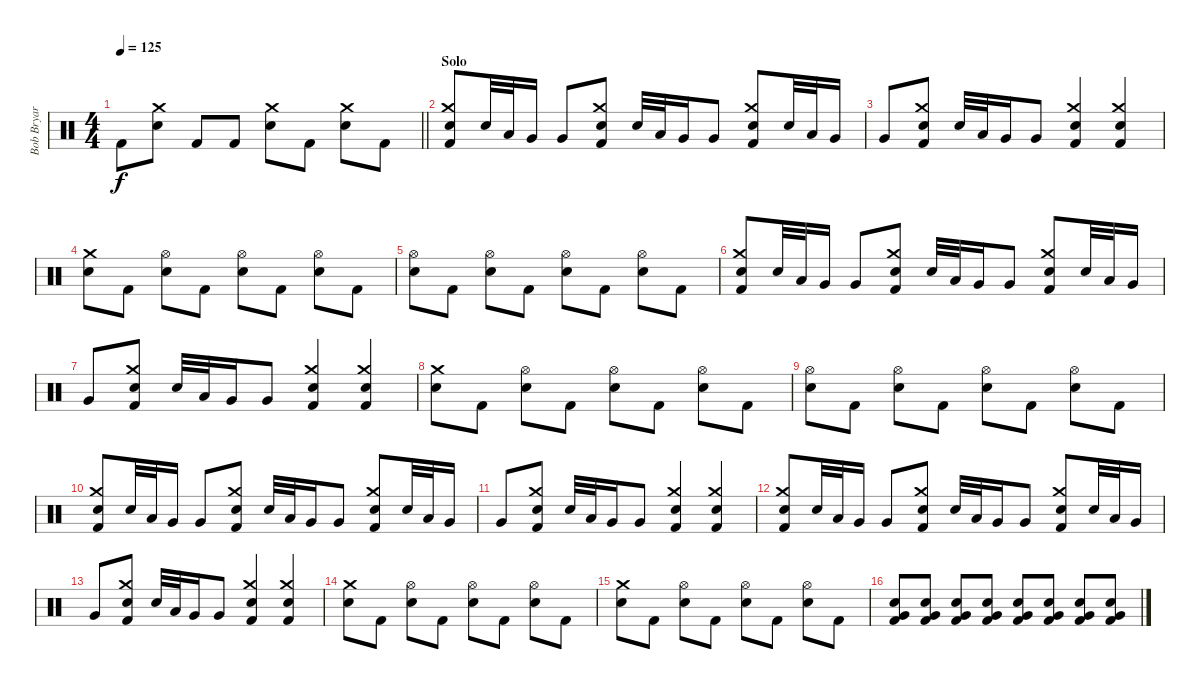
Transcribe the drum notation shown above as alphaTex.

\track ("Bob Bryar" "Bob Bryar") {instrument percussion}
\staff {score}
\articulation defaults
\ts (4 4)
\tempo 125
\clef neutral
\barLineRight lightlight
\ks c "Kick (hit) 2".8{dy f}
("Crash medium (hit)" "Electric Snare (hit)").8 "Kick (hit) 2".8 "Kick (hit) 2".8 ("Crash medium (hit)" "Electric Snare (hit)").8 "Kick (hit) 2".8 ("Crash medium (hit)" "Electric Snare (hit)").8 "Kick (hit) 2".8 |
\section ("" "Solo")
("Crash medium (hit)" "Electric Snare (hit)" "Kick (hit) 2").8 "Electric Snare (hit)".32 "Low Tom (hit)".32 "Very Low Tom (hit)".16 "Very Low Tom (hit)".8 ("Crash medium (hit)" "Electric Snare (hit)" "Kick (hit) 2").8 "Electric Snare (hit)".32 "Low Tom (hit)".32 "Very Low Tom (hit)".16 "Very Low Tom (hit)".8 ("Crash medium (hit)" "Electric Snare (hit)" "Kick (hit) 2").8 "Electric Snare (hit)".32 "Low Tom (hit)".32 "Very Low Tom (hit)".16 |
"Very Low Tom (hit)".8 ("Crash medium (hit)" "Electric Snare (hit)" "Kick (hit) 2").8 "Electric Snare (hit)".32 "Low Tom (hit)".32 "Very Low Tom (hit)".16 "Very Low Tom (hit)".8 ("Crash medium (hit)" "Electric Snare (hit)" "Kick (hit) 2").4 ("Crash medium (hit)" "Electric Snare (hit)" "Kick (hit) 2").4 |
("Crash medium (hit)" "Electric Snare (hit)").8 "Kick (hit) 2".8 ("Hi-Hat (open)" "Electric Snare (hit)").8 "Kick (hit) 2".8 ("Hi-Hat (open)" "Electric Snare (hit)").8 "Kick (hit) 2".8 ("Hi-Hat (open)" "Electric Snare (hit)").8 "Kick (hit) 2".8 |
("Hi-Hat (open)" "Electric Snare (hit)").8 "Kick (hit) 2".8 ("Hi-Hat (open)" "Electric Snare (hit)").8 "Kick (hit) 2".8 ("Hi-Hat (open)" "Electric Snare (hit)").8 "Kick (hit) 2".8 ("Hi-Hat (open)" "Electric Snare (hit)").8 "Kick (hit) 2".8 |
("Crash medium (hit)" "Electric Snare (hit)" "Kick (hit) 2").8 "Electric Snare (hit)".32 "Low Tom (hit)".32 "Very Low Tom (hit)".16 "Very Low Tom (hit)".8 ("Crash medium (hit)" "Electric Snare (hit)" "Kick (hit) 2").8 "Electric Snare (hit)".32 "Low Tom (hit)".32 "Very Low Tom (hit)".16 "Very Low Tom (hit)".8 ("Crash medium (hit)" "Electric Snare (hit)" "Kick (hit) 2").8 "Electric Snare (hit)".32 "Low Tom (hit)".32 "Very Low Tom (hit)".16 |
"Very Low Tom (hit)".8 ("Crash medium (hit)" "Electric Snare (hit)" "Kick (hit) 2").8 "Electric Snare (hit)".32 "Low Tom (hit)".32 "Very Low Tom (hit)".16 "Very Low Tom (hit)".8 ("Crash medium (hit)" "Electric Snare (hit)" "Kick (hit) 2").4 ("Crash medium (hit)" "Electric Snare (hit)" "Kick (hit) 2").4 |
("Crash medium (hit)" "Electric Snare (hit)").8 "Kick (hit) 2".8 ("Hi-Hat (open)" "Electric Snare (hit)").8 "Kick (hit) 2".8 ("Hi-Hat (open)" "Electric Snare (hit)").8 "Kick (hit) 2".8 ("Hi-Hat (open)" "Electric Snare (hit)").8 "Kick (hit) 2".8 |
("Hi-Hat (open)" "Electric Snare (hit)").8 "Kick (hit) 2".8 ("Hi-Hat (open)" "Electric Snare (hit)").8 "Kick (hit) 2".8 ("Hi-Hat (open)" "Electric Snare (hit)").8 "Kick (hit) 2".8 ("Hi-Hat (open)" "Electric Snare (hit)").8 "Kick (hit) 2".8 |
("Crash medium (hit)" "Electric Snare (hit)" "Kick (hit) 2").8 "Electric Snare (hit)".32 "Low Tom (hit)".32 "Very Low Tom (hit)".16 "Very Low Tom (hit)".8 ("Crash medium (hit)" "Electric Snare (hit)" "Kick (hit) 2").8 "Electric Snare (hit)".32 "Low Tom (hit)".32 "Very Low Tom (hit)".16 "Very Low Tom (hit)".8 ("Crash medium (hit)" "Electric Snare (hit)" "Kick (hit) 2").8 "Electric Snare (hit)".32 "Low Tom (hit)".32 "Very Low Tom (hit)".16 |
"Very Low Tom (hit)".8 ("Crash medium (hit)" "Electric Snare (hit)" "Kick (hit) 2").8 "Electric Snare (hit)".32 "Low Tom (hit)".32 "Very Low Tom (hit)".16 "Very Low Tom (hit)".8 ("Crash medium (hit)" "Electric Snare (hit)" "Kick (hit) 2").4 ("Crash medium (hit)" "Electric Snare (hit)" "Kick (hit) 2").4 |
("Crash medium (hit)" "Electric Snare (hit)" "Kick (hit) 2").8 "Electric Snare (hit)".32 "Low Tom (hit)".32 "Very Low Tom (hit)".16 "Very Low Tom (hit)".8 ("Crash medium (hit)" "Electric Snare (hit)" "Kick (hit) 2").8 "Electric Snare (hit)".32 "Low Tom (hit)".32 "Very Low Tom (hit)".16 "Very Low Tom (hit)".8 ("Crash medium (hit)" "Electric Snare (hit)" "Kick (hit) 2").8 "Electric Snare (hit)".32 "Low Tom (hit)".32 "Very Low Tom (hit)".16 |
"Very Low Tom (hit)".8 ("Crash medium (hit)" "Electric Snare (hit)" "Kick (hit) 2").8 "Electric Snare (hit)".32 "Low Tom (hit)".32 "Very Low Tom (hit)".16 "Very Low Tom (hit)".8 ("Crash medium (hit)" "Electric Snare (hit)" "Kick (hit) 2").4 ("Crash medium (hit)" "Electric Snare (hit)" "Kick (hit) 2").4 |
("Crash medium (hit)" "Electric Snare (hit)").8 "Kick (hit) 2".8 ("Hi-Hat (open)" "Electric Snare (hit)").8 "Kick (hit) 2".8 ("Hi-Hat (open)" "Electric Snare (hit)").8 "Kick (hit) 2".8 ("Hi-Hat (open)" "Electric Snare (hit)").8 "Kick (hit) 2".8 |
("Crash medium (hit)" "Electric Snare (hit)").8 "Kick (hit) 2".8 ("Hi-Hat (open)" "Electric Snare (hit)").8 "Kick (hit) 2".8 ("Hi-Hat (open)" "Electric Snare (hit)").8 "Kick (hit) 2".8 ("Hi-Hat (open)" "Electric Snare (hit)").8 "Kick (hit) 2".8 |
("Electric Snare (hit)" "Very Low Tom (hit)" "Kick (hit) 2").8{volume 8} ("Electric Snare (hit)" "Very Low Tom (hit)" "Kick (hit) 2").8{volume 13} ("Electric Snare (hit)" "Very Low Tom (hit)" "Kick (hit) 2").8 ("Electric Snare (hit)" "Very Low Tom (hit)" "Kick (hit) 2").8 ("Electric Snare (hit)" "Very Low Tom (hit)" "Kick (hit) 2").8 ("Electric Snare (hit)" "Very Low Tom (hit)" "Kick (hit) 2").8 ("Electric Snare (hit)" "Very Low Tom (hit)" "Kick (hit) 2").8 ("Electric Snare (hit)" "Very Low Tom (hit)" "Kick (hit) 2").8
